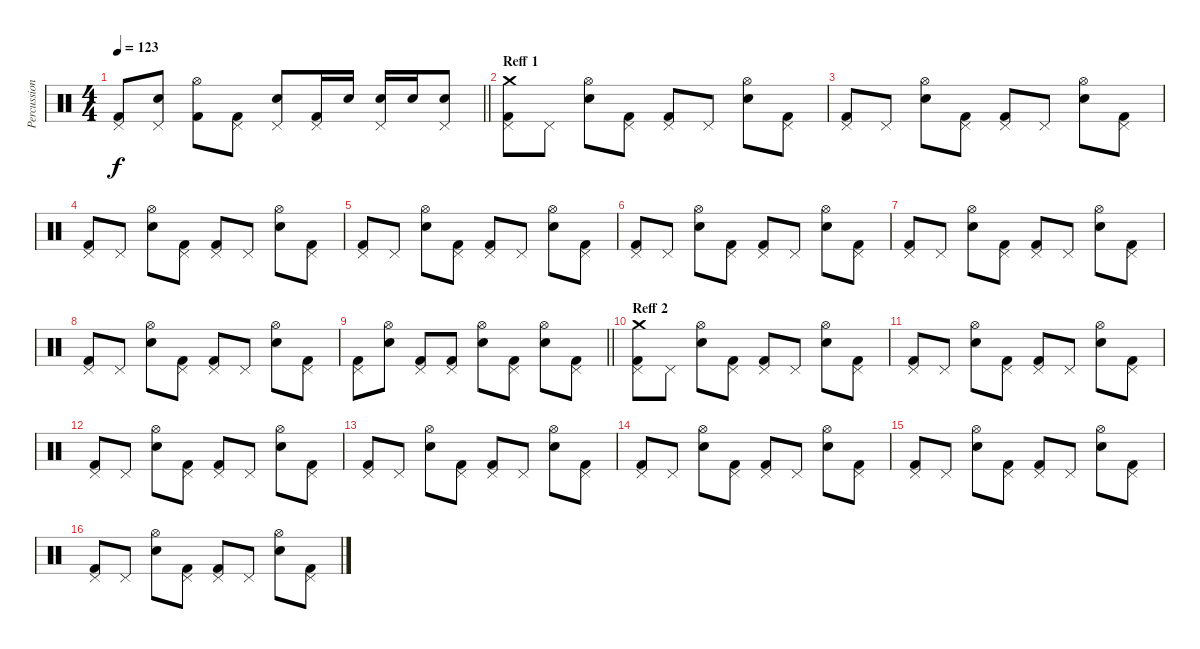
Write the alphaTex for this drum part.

\track ("Percussion 1" "Percussion") {instrument percussion}
\staff {score}
\articulation defaults
\ts (4 4)
\tempo 123
\clef neutral
\barLineRight lightlight
\ks c
("Pedal Hi-Hat (hit)" "Kick (hit) 2").8{dy f} ("Pedal Hi-Hat (hit)" "Electric Snare (hit)").8 ("Hi-Hat (open)" "Kick (hit) 2").8 ("Pedal Hi-Hat (hit)" "Kick (hit) 2").8 ("Pedal Hi-Hat (hit)" "Electric Snare (hit)").8 ("Pedal Hi-Hat (hit)" "Kick (hit) 2").16 "Electric Snare (hit)".16 ("Pedal Hi-Hat (hit)" "Electric Snare (hit)").16 "Electric Snare (hit)".16 ("Pedal Hi-Hat (hit)" "Electric Snare (hit)").8 |
\section ("" "Reff 1")
("Pedal Hi-Hat (hit)" "Crash medium (hit)" "Kick (hit) 2").8 "Pedal Hi-Hat (hit)".8 ("Hi-Hat (open)" "Electric Snare (hit)").8 ("Pedal Hi-Hat (hit)" "Kick (hit) 2").8 ("Pedal Hi-Hat (hit)" "Kick (hit) 2").8 "Pedal Hi-Hat (hit)".8 ("Hi-Hat (open)" "Electric Snare (hit)").8 ("Pedal Hi-Hat (hit)" "Kick (hit) 2").8 |
("Pedal Hi-Hat (hit)" "Kick (hit) 2").8 "Pedal Hi-Hat (hit)".8 ("Hi-Hat (open)" "Electric Snare (hit)").8 ("Pedal Hi-Hat (hit)" "Kick (hit) 2").8 ("Pedal Hi-Hat (hit)" "Kick (hit) 2").8 "Pedal Hi-Hat (hit)".8 ("Hi-Hat (open)" "Electric Snare (hit)").8 ("Pedal Hi-Hat (hit)" "Kick (hit) 2").8 |
("Pedal Hi-Hat (hit)" "Kick (hit) 2").8 "Pedal Hi-Hat (hit)".8 ("Hi-Hat (open)" "Electric Snare (hit)").8 ("Pedal Hi-Hat (hit)" "Kick (hit) 2").8 ("Pedal Hi-Hat (hit)" "Kick (hit) 2").8 "Pedal Hi-Hat (hit)".8 ("Hi-Hat (open)" "Electric Snare (hit)").8 ("Pedal Hi-Hat (hit)" "Kick (hit) 2").8 |
("Pedal Hi-Hat (hit)" "Kick (hit) 2").8 "Pedal Hi-Hat (hit)".8 ("Hi-Hat (open)" "Electric Snare (hit)").8 ("Pedal Hi-Hat (hit)" "Kick (hit) 2").8 ("Pedal Hi-Hat (hit)" "Kick (hit) 2").8 "Pedal Hi-Hat (hit)".8 ("Hi-Hat (open)" "Electric Snare (hit)").8 ("Pedal Hi-Hat (hit)" "Kick (hit) 2").8 |
("Pedal Hi-Hat (hit)" "Kick (hit) 2").8 "Pedal Hi-Hat (hit)".8 ("Hi-Hat (open)" "Electric Snare (hit)").8 ("Pedal Hi-Hat (hit)" "Kick (hit) 2").8 ("Pedal Hi-Hat (hit)" "Kick (hit) 2").8 "Pedal Hi-Hat (hit)".8 ("Hi-Hat (open)" "Electric Snare (hit)").8 ("Pedal Hi-Hat (hit)" "Kick (hit) 2").8 |
("Pedal Hi-Hat (hit)" "Kick (hit) 2").8 "Pedal Hi-Hat (hit)".8 ("Hi-Hat (open)" "Electric Snare (hit)").8 ("Pedal Hi-Hat (hit)" "Kick (hit) 2").8 ("Pedal Hi-Hat (hit)" "Kick (hit) 2").8 "Pedal Hi-Hat (hit)".8 ("Hi-Hat (open)" "Electric Snare (hit)").8 ("Pedal Hi-Hat (hit)" "Kick (hit) 2").8 |
("Pedal Hi-Hat (hit)" "Kick (hit) 2").8 "Pedal Hi-Hat (hit)".8 ("Hi-Hat (open)" "Electric Snare (hit)").8 ("Pedal Hi-Hat (hit)" "Kick (hit) 2").8 ("Pedal Hi-Hat (hit)" "Kick (hit) 2").8 "Pedal Hi-Hat (hit)".8 ("Hi-Hat (open)" "Electric Snare (hit)").8 ("Pedal Hi-Hat (hit)" "Kick (hit) 2").8 |
\barLineRight lightlight
("Pedal Hi-Hat (hit)" "Kick (hit) 2").8 ("Electric Snare (hit)" "Hi-Hat (open)").8 ("Pedal Hi-Hat (hit)" "Kick (hit) 2").8 ("Pedal Hi-Hat (hit)" "Kick (hit) 2").8 ("Hi-Hat (open)" "Electric Snare (hit)").8 ("Pedal Hi-Hat (hit)" "Kick (hit) 2").8 ("Hi-Hat (open)" "Electric Snare (hit)").8 ("Pedal Hi-Hat (hit)" "Kick (hit) 2").8 |
\section ("" "Reff 2")
("Pedal Hi-Hat (hit)" "Crash medium (hit)" "Kick (hit) 2").8 "Pedal Hi-Hat (hit)".8 ("Hi-Hat (open)" "Electric Snare (hit)").8 ("Pedal Hi-Hat (hit)" "Kick (hit) 2").8 ("Pedal Hi-Hat (hit)" "Kick (hit) 2").8 "Pedal Hi-Hat (hit)".8 ("Hi-Hat (open)" "Electric Snare (hit)").8 ("Pedal Hi-Hat (hit)" "Kick (hit) 2").8 |
("Pedal Hi-Hat (hit)" "Kick (hit) 2").8 "Pedal Hi-Hat (hit)".8 ("Hi-Hat (open)" "Electric Snare (hit)").8 ("Pedal Hi-Hat (hit)" "Kick (hit) 2").8 ("Pedal Hi-Hat (hit)" "Kick (hit) 2").8 "Pedal Hi-Hat (hit)".8 ("Hi-Hat (open)" "Electric Snare (hit)").8 ("Pedal Hi-Hat (hit)" "Kick (hit) 2").8 |
("Pedal Hi-Hat (hit)" "Kick (hit) 2").8 "Pedal Hi-Hat (hit)".8 ("Hi-Hat (open)" "Electric Snare (hit)").8 ("Pedal Hi-Hat (hit)" "Kick (hit) 2").8 ("Pedal Hi-Hat (hit)" "Kick (hit) 2").8 "Pedal Hi-Hat (hit)".8 ("Hi-Hat (open)" "Electric Snare (hit)").8 ("Pedal Hi-Hat (hit)" "Kick (hit) 2").8 |
("Pedal Hi-Hat (hit)" "Kick (hit) 2").8 "Pedal Hi-Hat (hit)".8 ("Hi-Hat (open)" "Electric Snare (hit)").8 ("Pedal Hi-Hat (hit)" "Kick (hit) 2").8 ("Pedal Hi-Hat (hit)" "Kick (hit) 2").8 "Pedal Hi-Hat (hit)".8 ("Hi-Hat (open)" "Electric Snare (hit)").8 ("Pedal Hi-Hat (hit)" "Kick (hit) 2").8 |
("Pedal Hi-Hat (hit)" "Kick (hit) 2").8 "Pedal Hi-Hat (hit)".8 ("Hi-Hat (open)" "Electric Snare (hit)").8 ("Pedal Hi-Hat (hit)" "Kick (hit) 2").8 ("Pedal Hi-Hat (hit)" "Kick (hit) 2").8 "Pedal Hi-Hat (hit)".8 ("Hi-Hat (open)" "Electric Snare (hit)").8 ("Pedal Hi-Hat (hit)" "Kick (hit) 2").8 |
("Pedal Hi-Hat (hit)" "Kick (hit) 2").8 "Pedal Hi-Hat (hit)".8 ("Hi-Hat (open)" "Electric Snare (hit)").8 ("Pedal Hi-Hat (hit)" "Kick (hit) 2").8 ("Pedal Hi-Hat (hit)" "Kick (hit) 2").8 "Pedal Hi-Hat (hit)".8 ("Hi-Hat (open)" "Electric Snare (hit)").8 ("Pedal Hi-Hat (hit)" "Kick (hit) 2").8 |
("Pedal Hi-Hat (hit)" "Kick (hit) 2").8 "Pedal Hi-Hat (hit)".8 ("Hi-Hat (open)" "Electric Snare (hit)").8 ("Pedal Hi-Hat (hit)" "Kick (hit) 2").8 ("Pedal Hi-Hat (hit)" "Kick (hit) 2").8 "Pedal Hi-Hat (hit)".8 ("Hi-Hat (open)" "Electric Snare (hit)").8 ("Pedal Hi-Hat (hit)" "Kick (hit) 2").8
